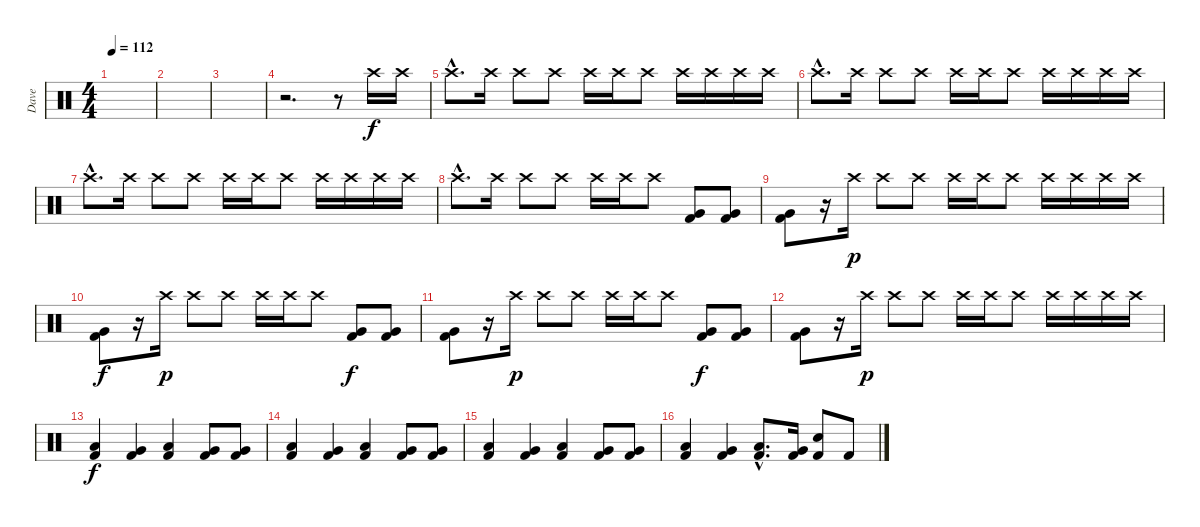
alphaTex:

\track ("Dave" "Dave") {instrument percussion}
\staff {score}
\articulation defaults
\ts (4 4)
\tempo 112
\clef neutral
\ks c
|
|
|
r.2{d} r.8 "Crash high (hit)".16 "Crash high (hit)".16 |
"Crash high (hit)"{hac}.8{d} "Crash high (hit)".16 "Crash high (hit)".8 "Crash high (hit)".8 "Crash high (hit)".16 "Crash high (hit)".16 "Crash high (hit)".8 "Crash high (hit)".16 "Crash high (hit)".16 "Crash high (hit)".16 "Crash high (hit)".16 |
"Crash high (hit)"{hac}.8{d} "Crash high (hit)".16 "Crash high (hit)".8 "Crash high (hit)".8 "Crash high (hit)".16 "Crash high (hit)".16 "Crash high (hit)".8 "Crash high (hit)".16 "Crash high (hit)".16 "Crash high (hit)".16 "Crash high (hit)".16 |
"Crash high (hit)"{hac}.8{d} "Crash high (hit)".16 "Crash high (hit)".8 "Crash high (hit)".8 "Crash high (hit)".16 "Crash high (hit)".16 "Crash high (hit)".8 "Crash high (hit)".16 "Crash high (hit)".16 "Crash high (hit)".16 "Crash high (hit)".16 |
"Crash high (hit)"{hac}.8{d} "Crash high (hit)".16 "Crash high (hit)".8 "Crash high (hit)".8 "Crash high (hit)".16 "Crash high (hit)".16 "Crash high (hit)".8 ("Very Low Tom (hit)" "Kick (hit) 2").8{dy f} ("Very Low Tom (hit)" "Kick (hit) 2").8 |
("Very Low Tom (hit)" "Kick (hit) 2").8 r.16 "Crash high (hit)".16{dy p} "Crash high (hit)".8 "Crash high (hit)".8 "Crash high (hit)".16 "Crash high (hit)".16 "Crash high (hit)".8 "Crash high (hit)".16 "Crash high (hit)".16 "Crash high (hit)".16 "Crash high (hit)".16 |
("Very Low Tom (hit)" "Kick (hit) 2").8{dy f} r.16 "Crash high (hit)".16{dy p} "Crash high (hit)".8 "Crash high (hit)".8 "Crash high (hit)".16 "Crash high (hit)".16 "Crash high (hit)".8 ("Very Low Tom (hit)" "Kick (hit) 2").8{dy f} ("Very Low Tom (hit)" "Kick (hit) 2").8 |
("Very Low Tom (hit)" "Kick (hit) 2").8 r.16 "Crash high (hit)".16{dy p} "Crash high (hit)".8 "Crash high (hit)".8 "Crash high (hit)".16 "Crash high (hit)".16 "Crash high (hit)".8 ("Very Low Tom (hit)" "Kick (hit) 2").8{dy f} ("Very Low Tom (hit)" "Kick (hit) 2").8 |
("Very Low Tom (hit)" "Kick (hit) 2").8 r.16 "Crash high (hit)".16{dy p} "Crash high (hit)".8 "Crash high (hit)".8 "Crash high (hit)".16 "Crash high (hit)".16 "Crash high (hit)".8 "Crash high (hit)".16 "Crash high (hit)".16 "Crash high (hit)".16 "Crash high (hit)".16 |
("Low Tom (hit)" "Kick (hit) 2").4{dy f} ("Very Low Tom (hit)" "Kick (hit) 2").4 ("Low Floor Tom (hit)" "Kick (hit) 2").4 ("Very Low Tom (hit)" "Kick (hit) 2").8 ("Very Low Tom (hit)" "Kick (hit) 2").8 |
("Low Tom (hit)" "Kick (hit) 2").4 ("Very Low Tom (hit)" "Kick (hit) 2").4 ("Low Floor Tom (hit)" "Kick (hit) 2").4 ("Very Low Tom (hit)" "Kick (hit) 2").8 ("Very Low Tom (hit)" "Kick (hit) 2").8 |
("Low Tom (hit)" "Kick (hit) 2").4 ("Very Low Tom (hit)" "Kick (hit) 2").4 ("Low Floor Tom (hit)" "Kick (hit) 2").4 ("Very Low Tom (hit)" "Kick (hit) 2").8 ("Very Low Tom (hit)" "Kick (hit) 2").8 |
("Low Tom (hit)" "Kick (hit) 2").4 ("Very Low Tom (hit)" "Kick (hit) 2").4 ("Low Floor Tom (hit)"{hac} "Kick (hit) 2"{hac}).8{d} ("Very Low Tom (hit)" "Kick (hit) 2").16 ("Electric Snare (hit)" "Kick (hit) 2").8 "Kick (hit) 2".8
